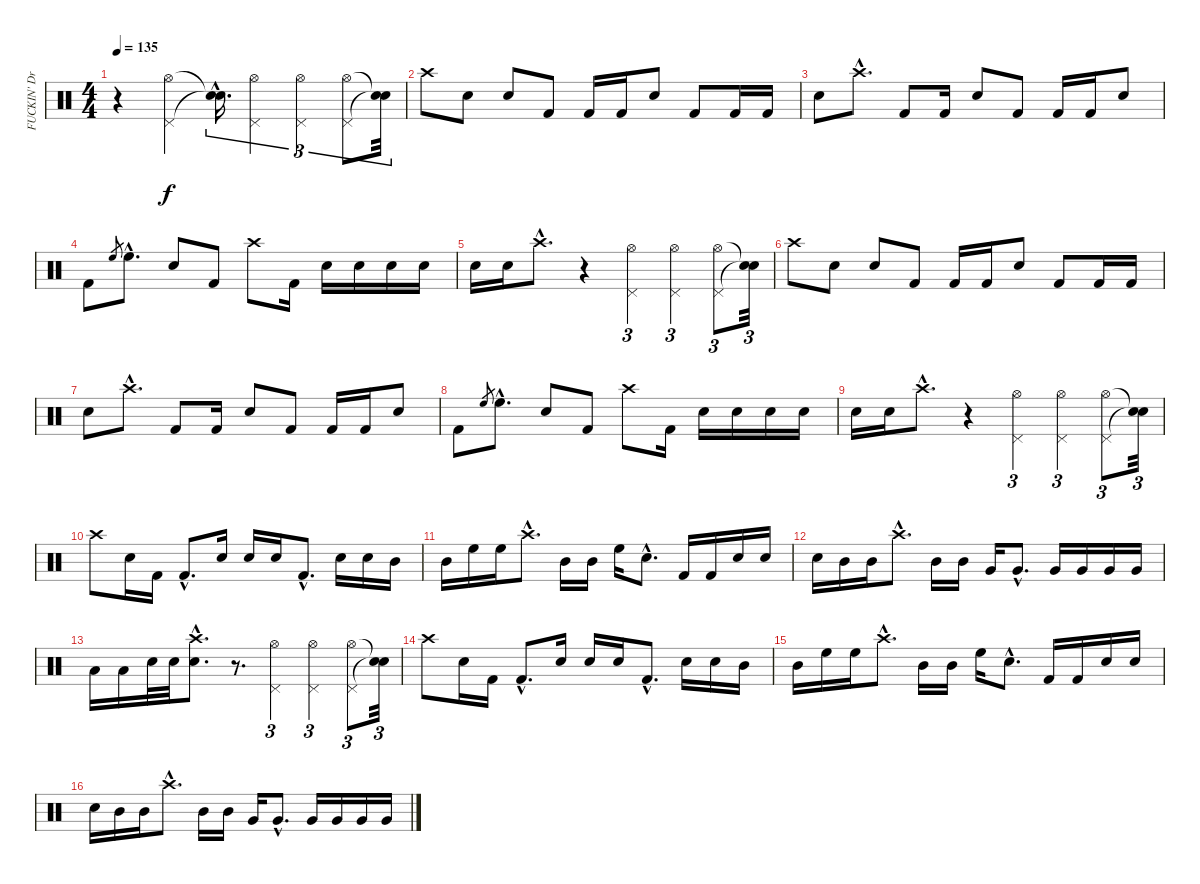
\track ("FUCKIN' Drums" "FUCKIN' Dr") {instrument percussion}
\staff {score}
\articulation defaults
\ts (4 4)
\tempo 135
\clef neutral
\ks c
r.4{dy f} ("Hi-Hat (open)" "Pedal Hi-Hat (hit)").4 ("Snare (hit)"{hac t} "Snare (hit)"{hac t}).16{d tu (3 2)} ("Hi-Hat (open)" "Pedal Hi-Hat (hit)").4{tu (3 2)} ("Hi-Hat (open)" "Pedal Hi-Hat (hit)").4{tu (3 2)} ("Hi-Hat (open)" "Pedal Hi-Hat (hit)").8{tu (3 2)} ("Snare (hit)"{t} "Snare (hit)"{t}).32{tu (3 2)} |
"Crash high (hit)".8 "Snare (hit) 2".8 "Snare (hit) 2".8 "Kick (hit) 2".8 "Kick (hit) 2".16 "Kick (hit) 2".16 "Snare (hit) 2".8 "Kick (hit) 2".8 "Kick (hit) 2".16 "Kick (hit) 2".16 |
"Snare (hit) 2".8 "Crash high (hit)"{hac}.8{d} "Kick (hit) 2".8 "Kick (hit) 2".16 "Snare (hit) 2".8 "Kick (hit) 2".8 "Kick (hit) 2".16 "Kick (hit) 2".16 "Snare (hit) 2".8 |
"Kick (hit) 2".8 "High Floor Tom (hit)".8{gr} "High Floor Tom (hit)"{hac}.8{d} "Snare (hit) 2".8 "Kick (hit) 2".8 "Crash high (hit)".8 "Kick (hit) 2".16 "Snare (hit) 2".16 "Snare (hit) 2".16 "Snare (hit) 2".16 "Snare (hit) 2".16 |
"Snare (hit) 2".16 "Snare (hit) 2".16 "Crash high (hit)"{hac}.8{d} r.4 ("Hi-Hat (open)" "Pedal Hi-Hat (hit)").4{tu (3 2)} ("Hi-Hat (open)" "Pedal Hi-Hat (hit)").4{tu (3 2)} ("Hi-Hat (open)" "Pedal Hi-Hat (hit)").8{tu (3 2)} ("Snare (hit)"{t} "Snare (hit)"{t}).32{tu (3 2)} |
"Crash high (hit)".8 "Snare (hit) 2".8 "Snare (hit) 2".8 "Kick (hit) 2".8 "Kick (hit) 2".16 "Kick (hit) 2".16 "Snare (hit) 2".8 "Kick (hit) 2".8 "Kick (hit) 2".16 "Kick (hit) 2".16 |
"Snare (hit) 2".8 "Crash high (hit)"{hac}.8{d} "Kick (hit) 2".8 "Kick (hit) 2".16 "Snare (hit) 2".8 "Kick (hit) 2".8 "Kick (hit) 2".16 "Kick (hit) 2".16 "Snare (hit) 2".8 |
"Kick (hit) 2".8 "High Floor Tom (hit)".8{gr} "High Floor Tom (hit)"{hac}.8{d} "Snare (hit) 2".8 "Kick (hit) 2".8 "Crash high (hit)".8 "Kick (hit) 2".16 "Snare (hit) 2".16 "Snare (hit) 2".16 "Snare (hit) 2".16 "Snare (hit) 2".16 |
"Snare (hit) 2".16 "Snare (hit) 2".16 "Crash high (hit)"{hac}.8{d} r.4 ("Hi-Hat (open)" "Pedal Hi-Hat (hit)").4{tu (3 2)} ("Hi-Hat (open)" "Pedal Hi-Hat (hit)").4{tu (3 2)} ("Hi-Hat (open)" "Pedal Hi-Hat (hit)").8{tu (3 2)} ("Snare (hit)"{t} "Snare (hit)"{t}).32{tu (3 2)} |
"Crash high (hit)".8 "Snare (hit) 2".16 "Kick (hit) 2".16 "Kick (hit) 2"{hac}.8{d} "Snare (hit) 2".16 "Snare (hit) 2".16 "Snare (hit) 2".16 "Kick (hit) 2"{hac}.8{d} "Snare (hit) 2".16 "Snare (hit) 2".16 "Mid Tom (hit)".16 |
"Mid Tom (hit)".16 "High Floor Tom (hit)".16 "High Floor Tom (hit)".16 "Crash high (hit)"{hac}.8{d} "Mid Tom (hit)".16 "Mid Tom (hit)".16 "High Floor Tom (hit)".16 "Snare (hit) 2"{hac}.8{d} "Kick (hit) 2".16 "Kick (hit) 2".16 "Snare (hit) 2".16 "Snare (hit) 2".16 |
"Snare (hit) 2".16 "Mid Tom (hit)".16 "Mid Tom (hit)".16 "Crash high (hit)"{hac}.8{d} "Mid Tom (hit)".16 "Mid Tom (hit)".16 "Very Low Tom (hit)".16 "Very Low Tom (hit)"{hac}.8{d} "Very Low Tom (hit)".16 "Very Low Tom (hit)".16 "Very Low Tom (hit)".16 "Very Low Tom (hit)".16 |
"Low Floor Tom (hit)".16 "Low Floor Tom (hit)".16 "Electric Snare (hit)".32 "Electric Snare (hit)".32 ("Electric Snare (hit)"{hac} "Crash high (hit)"{hac}).8{d} r.8{d} ("Hi-Hat (open)" "Pedal Hi-Hat (hit)").4{tu (3 2)} ("Hi-Hat (open)" "Pedal Hi-Hat (hit)").4{tu (3 2)} ("Hi-Hat (open)" "Pedal Hi-Hat (hit)").8{tu (3 2)} ("Snare (hit)"{t} "Snare (hit)"{t}).32{tu (3 2)} |
"Crash high (hit)".8 "Snare (hit) 2".16 "Kick (hit) 2".16 "Kick (hit) 2"{hac}.8{d} "Snare (hit) 2".16 "Snare (hit) 2".16 "Snare (hit) 2".16 "Kick (hit) 2"{hac}.8{d} "Snare (hit) 2".16 "Snare (hit) 2".16 "Mid Tom (hit)".16 |
"Mid Tom (hit)".16 "High Floor Tom (hit)".16 "High Floor Tom (hit)".16 "Crash high (hit)"{hac}.8{d} "Mid Tom (hit)".16 "Mid Tom (hit)".16 "High Floor Tom (hit)".16 "Snare (hit) 2"{hac}.8{d} "Kick (hit) 2".16 "Kick (hit) 2".16 "Snare (hit) 2".16 "Snare (hit) 2".16 |
"Snare (hit) 2".16 "Mid Tom (hit)".16 "Mid Tom (hit)".16 "Crash high (hit)"{hac}.8{d} "Mid Tom (hit)".16 "Mid Tom (hit)".16 "Very Low Tom (hit)".16 "Very Low Tom (hit)"{hac}.8{d} "Very Low Tom (hit)".16 "Very Low Tom (hit)".16 "Very Low Tom (hit)".16 "Very Low Tom (hit)".16
